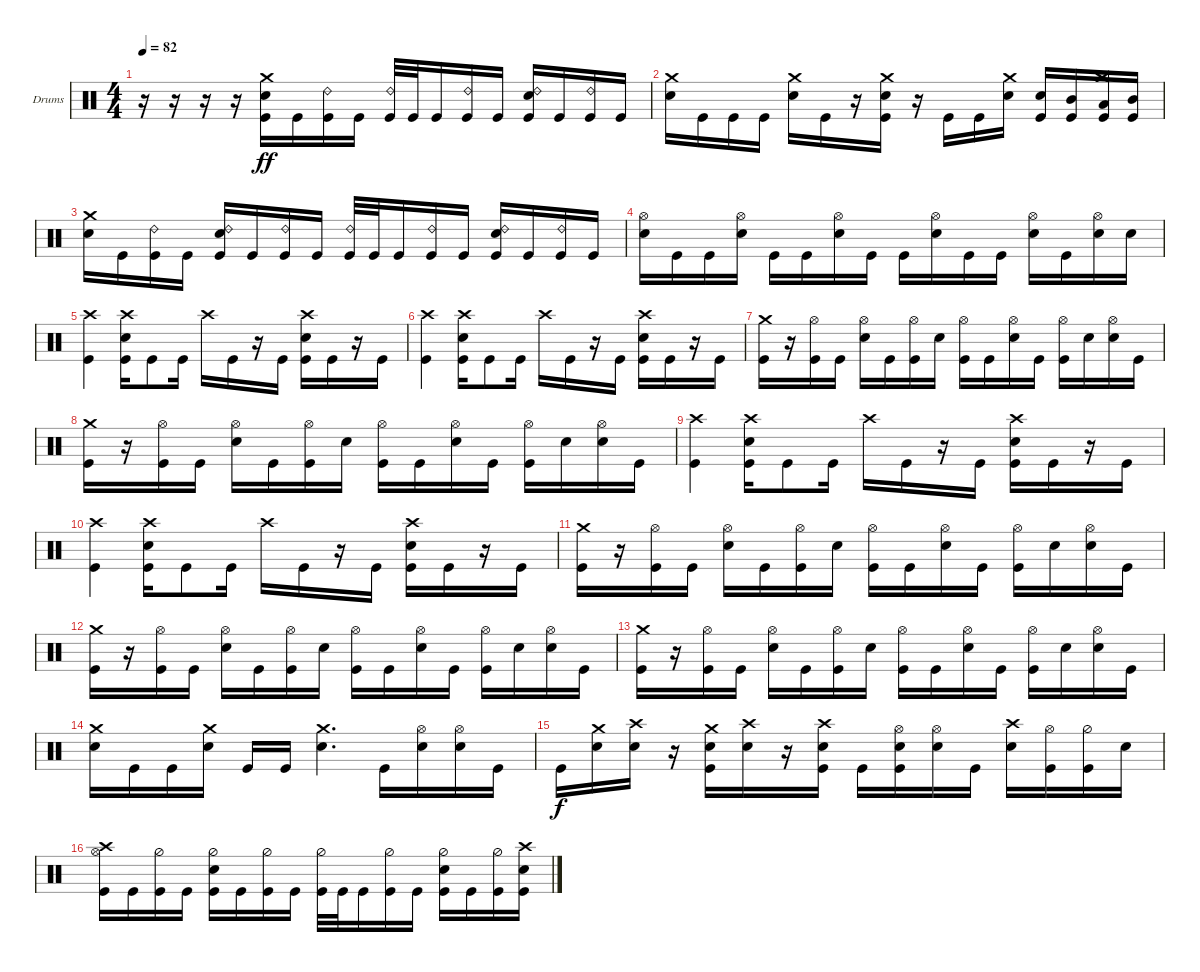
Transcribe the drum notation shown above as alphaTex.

\bracketExtendMode groupsimilarinstruments
\firstSystemTrackNameOrientation horizontal
\otherSystemsTrackNameOrientation horizontal
\track ("Drumkit" "Drums") {instrument percussion}
\staff {score}
\articulation defaults
\ts (4 4)
\tempo 82
\clef neutral
\ks c
r.16{dy ff} r.16 r.16 r.16 ("Kick (hit)" "Snare (hit) 2" "Crash medium (hit)").16 "Kick (hit)".16 ("Kick (hit)" "Ride (bell) 2").16 "Kick (hit)".16 ("Kick (hit)" "Ride (bell) 2").32 "Kick (hit)".32 "Kick (hit)".16 ("Kick (hit)" "Ride (bell) 2").16 "Kick (hit)".16 ("Kick (hit)" "Snare (hit) 2" "Ride (bell) 2").16 "Kick (hit)".16 ("Kick (hit)" "Ride (bell) 2").16 "Kick (hit)".16 |
("Snare (hit) 2" "Crash medium (hit)").16 "Kick (hit)".16 "Kick (hit)".16 "Kick (hit)".16 ("Crash medium (hit)" "Snare (hit) 2").16 "Kick (hit)".16 r.16 ("Kick (hit)" "Snare (hit) 2" "Crash medium (hit)").16 r.16 "Kick (hit)".16 "Kick (hit)".16 ("Snare (hit) 2" "Crash medium (hit)").16 ("Kick (hit)" "Snare (hit) 2").16 ("Kick (hit)" "Mid Tom (hit)").16 ("Crash medium (hit)" "Kick (hit)" "Low Tom (hit)").16 ("Kick (hit)" "Mid Tom (hit)").16 |
("Snare (hit) 2" "Crash medium (hit)").16 "Kick (hit)".16 ("Kick (hit)" "Ride (bell) 2").16 "Kick (hit)".16 ("Kick (hit)" "Snare (hit) 2" "Ride (bell) 2").16 "Kick (hit)".16 ("Kick (hit)" "Ride (bell) 2").16 "Kick (hit)".16 ("Kick (hit)" "Ride (bell) 2").32 "Kick (hit)".32 "Kick (hit)".16 ("Kick (hit)" "Ride (bell) 2").16 "Kick (hit)".16 ("Kick (hit)" "Snare (hit) 2" "Ride (bell) 2").16 "Kick (hit)".16 ("Kick (hit)" "Ride (bell) 2").16 "Kick (hit)".16 |
("Snare (hit) 2" "Hi-Hat (open)").16 "Kick (hit)".16 "Kick (hit)".16 ("Snare (hit) 2" "Hi-Hat (open)").16 "Kick (hit)".16 "Kick (hit)".16 ("Snare (hit) 2" "Hi-Hat (open)").16 "Kick (hit)".16 "Kick (hit)".16 ("Snare (hit) 2" "Hi-Hat (open)").16 "Kick (hit)".16 "Kick (hit)".16 ("Snare (hit) 2" "Hi-Hat (open)").16 "Kick (hit)".16 ("Snare (hit) 2" "Hi-Hat (open)").16 "Snare (hit) 2".16 |
("Crash high (hit)" "Kick (hit)").4 ("Kick (hit)" "Snare (hit) 2" "Crash high (hit)").16 "Kick (hit)".8 "Kick (hit)".16 "Crash high (hit)".16 "Kick (hit)".16 r.16 "Kick (hit)".16 ("Kick (hit)" "Snare (hit) 2" "Crash high (hit)").16 "Kick (hit)".16 r.16 "Kick (hit)".16 |
("Crash high (hit)" "Kick (hit)").4 ("Kick (hit)" "Snare (hit) 2" "Crash high (hit)").16 "Kick (hit)".8 "Kick (hit)".16 "Crash high (hit)".16 "Kick (hit)".16 r.16 "Kick (hit)".16 ("Kick (hit)" "Snare (hit) 2" "Crash high (hit)").16 "Kick (hit)".16 r.16 "Kick (hit)".16 |
("Crash medium (hit)" "Kick (hit)").16 r.16 ("Kick (hit)" "Hi-Hat (open)").16 "Kick (hit)".16 ("Snare (hit) 2" "Hi-Hat (open)").16 "Kick (hit)".16 ("Kick (hit)" "Hi-Hat (open)").16 "Snare (hit) 2".16 ("Kick (hit)" "Hi-Hat (open)").16 "Kick (hit)".16 ("Snare (hit) 2" "Hi-Hat (open)").16 "Kick (hit)".16 ("Kick (hit)" "Hi-Hat (open)").16 "Snare (hit) 2".16 ("Snare (hit) 2" "Hi-Hat (open)").16 "Kick (hit)".16 |
("Crash medium (hit)" "Kick (hit)").16 r.16 ("Kick (hit)" "Hi-Hat (open)").16 "Kick (hit)".16 ("Snare (hit) 2" "Hi-Hat (open)").16 "Kick (hit)".16 ("Kick (hit)" "Hi-Hat (open)").16 "Snare (hit) 2".16 ("Kick (hit)" "Hi-Hat (open)").16 "Kick (hit)".16 ("Snare (hit) 2" "Hi-Hat (open)").16 "Kick (hit)".16 ("Kick (hit)" "Hi-Hat (open)").16 "Snare (hit) 2".16 ("Snare (hit) 2" "Hi-Hat (open)").16 "Kick (hit)".16 |
("Crash high (hit)" "Kick (hit)").4 ("Kick (hit)" "Snare (hit) 2" "Crash high (hit)").16 "Kick (hit)".8 "Kick (hit)".16 "Crash high (hit)".16 "Kick (hit)".16 r.16 "Kick (hit)".16 ("Kick (hit)" "Snare (hit) 2" "Crash high (hit)").16 "Kick (hit)".16 r.16 "Kick (hit)".16 |
("Crash high (hit)" "Kick (hit)").4 ("Kick (hit)" "Snare (hit) 2" "Crash high (hit)").16 "Kick (hit)".8 "Kick (hit)".16 "Crash high (hit)".16 "Kick (hit)".16 r.16 "Kick (hit)".16 ("Kick (hit)" "Snare (hit) 2" "Crash high (hit)").16 "Kick (hit)".16 r.16 "Kick (hit)".16 |
("Crash medium (hit)" "Kick (hit)").16 r.16 ("Kick (hit)" "Hi-Hat (open)").16 "Kick (hit)".16 ("Snare (hit) 2" "Hi-Hat (open)").16 "Kick (hit)".16 ("Kick (hit)" "Hi-Hat (open)").16 "Snare (hit) 2".16 ("Kick (hit)" "Hi-Hat (open)").16 "Kick (hit)".16 ("Snare (hit) 2" "Hi-Hat (open)").16 "Kick (hit)".16 ("Kick (hit)" "Hi-Hat (open)").16 "Snare (hit) 2".16 ("Snare (hit) 2" "Hi-Hat (open)").16 "Kick (hit)".16 |
("Crash medium (hit)" "Kick (hit)").16 r.16 ("Kick (hit)" "Hi-Hat (open)").16 "Kick (hit)".16 ("Snare (hit) 2" "Hi-Hat (open)").16 "Kick (hit)".16 ("Kick (hit)" "Hi-Hat (open)").16 "Snare (hit) 2".16 ("Kick (hit)" "Hi-Hat (open)").16 "Kick (hit)".16 ("Snare (hit) 2" "Hi-Hat (open)").16 "Kick (hit)".16 ("Kick (hit)" "Hi-Hat (open)").16 "Snare (hit) 2".16 ("Snare (hit) 2" "Hi-Hat (open)").16 "Kick (hit)".16 |
("Crash medium (hit)" "Kick (hit)").16 r.16 ("Kick (hit)" "Hi-Hat (open)").16 "Kick (hit)".16 ("Snare (hit) 2" "Hi-Hat (open)").16 "Kick (hit)".16 ("Kick (hit)" "Hi-Hat (open)").16 "Snare (hit) 2".16 ("Kick (hit)" "Hi-Hat (open)").16 "Kick (hit)".16 ("Snare (hit) 2" "Hi-Hat (open)").16 "Kick (hit)".16 ("Kick (hit)" "Hi-Hat (open)").16 "Snare (hit) 2".16 ("Snare (hit) 2" "Hi-Hat (open)").16 "Kick (hit)".16 |
("Crash medium (hit)" "Snare (hit) 2").16 "Kick (hit)".16 "Kick (hit)".16 ("Crash medium (hit)" "Snare (hit) 2").16 "Kick (hit)".16 "Kick (hit)".16 ("Crash medium (hit)" "Snare (hit) 2").4{d} "Kick (hit)".16 ("Snare (hit) 2" "Hi-Hat (open)").16 ("Snare (hit) 2" "Hi-Hat (open)").16 "Kick (hit)".16 |
"Kick (hit)".16{dy f} ("Snare (hit) 2" "Crash medium (hit)").16 ("Snare (hit) 2" "Crash high (hit)").16 r.16 ("Snare (hit) 2" "Crash medium (hit)" "Kick (hit)").16 ("Snare (hit) 2" "Crash high (hit)").16 r.16 ("Snare (hit) 2" "Crash high (hit)" "Kick (hit)").16 "Kick (hit)".16 ("Snare (hit) 2" "Hi-Hat (open)" "Kick (hit)").16 ("Snare (hit) 2" "Hi-Hat (open)").16 "Kick (hit)".16 ("Snare (hit) 2" "Crash high (hit)").16 ("Kick (hit)" "Hi-Hat (open)").16 ("Kick (hit)" "Hi-Hat (half)").16 "Snare (hit) 2".16 |
("Kick (hit)" "Hi-Hat (open)" "Crash high (hit)").16 "Kick (hit)".16 ("Kick (hit)" "Hi-Hat (half)").16 "Kick (hit)".16 ("Kick (hit)" "Snare (hit) 2" "Hi-Hat (half)").16 "Kick (hit)".16 ("Kick (hit)" "Hi-Hat (half)").16 "Kick (hit)".16 ("Kick (hit)" "Hi-Hat (half)").32 "Kick (hit)".32 "Kick (hit)".16 ("Kick (hit)" "Hi-Hat (half)").16 "Kick (hit)".16 ("Kick (hit)" "Snare (hit) 2" "Hi-Hat (half)").16 "Kick (hit)".16 ("Kick (hit)" "Hi-Hat (half)").16 ("Kick (hit)" "Snare (hit) 2" "Crash high (hit)").16
